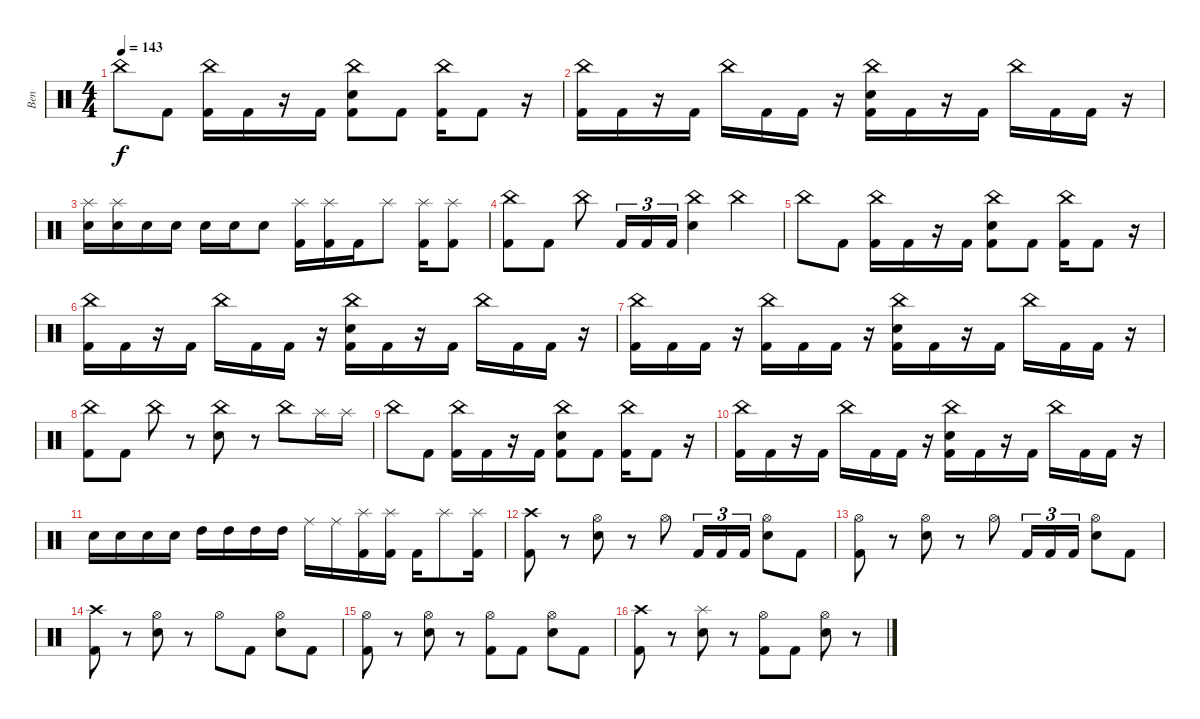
\track ("Ben" "Ben") {instrument percussion}
\staff {score}
\articulation defaults
\ts (4 4)
\tempo 143
\clef neutral
\ks c "China (hit)".8{dy f} "Kick (hit) 2".8
("China (hit)" "Kick (hit) 2").16 "Kick (hit) 2".16 r.16 "Kick (hit) 2".16 ("China (hit)" "Electric Snare (hit)" "Kick (hit) 2").8 "Kick (hit) 2".8 ("China (hit)" "Kick (hit) 2").16 "Kick (hit) 2".8 r.16 |
("China (hit)" "Kick (hit) 2").16 "Kick (hit) 2".16 r.16 "Kick (hit) 2".16 "China (hit)".16 "Kick (hit) 2".16 "Kick (hit) 2".16 r.16 ("China (hit)" "Electric Snare (hit)" "Kick (hit) 2").16 "Kick (hit) 2".16 r.16 "Kick (hit) 2".16 "China (hit)".16 "Kick (hit) 2".16 "Kick (hit) 2".16 r.16 |
("Splash (hit)" "Electric Snare (hit)").16 ("Splash (hit)" "Electric Snare (hit)").16 "Electric Snare (hit)".16 "Electric Snare (hit)".16 "Electric Snare (hit)".16 "Electric Snare (hit)".16 "Electric Snare (hit)".8 ("Splash (hit)" "Kick (hit) 2").16 ("Splash (hit)" "Kick (hit) 2").16 "Kick (hit) 2".16 "Splash (hit)".8 ("Splash (hit)" "Kick (hit) 2").16 ("Splash (hit)" "Kick (hit) 2").8 |
("China (hit)" "Kick (hit) 2").8 "Kick (hit) 2".8 "China (hit)".8 "Kick (hit) 2".16{tu (3 2)} "Kick (hit) 2".16{tu (3 2)} "Kick (hit) 2".16{tu (3 2)} ("China (hit)" "Electric Snare (hit)").4 "China (hit)".4 |
"China (hit)".8 "Kick (hit) 2".8 ("China (hit)" "Kick (hit) 2").16 "Kick (hit) 2".16 r.16 "Kick (hit) 2".16 ("China (hit)" "Electric Snare (hit)" "Kick (hit) 2").8 "Kick (hit) 2".8 ("China (hit)" "Kick (hit) 2").16 "Kick (hit) 2".8 r.16 |
("China (hit)" "Kick (hit) 2").16 "Kick (hit) 2".16 r.16 "Kick (hit) 2".16 "China (hit)".16 "Kick (hit) 2".16 "Kick (hit) 2".16 r.16 ("China (hit)" "Electric Snare (hit)" "Kick (hit) 2").16 "Kick (hit) 2".16 r.16 "Kick (hit) 2".16 "China (hit)".16 "Kick (hit) 2".16 "Kick (hit) 2".16 r.16 |
("China (hit)" "Kick (hit) 2").16 "Kick (hit) 2".16 "Kick (hit) 2".16 r.16 ("China (hit)" "Kick (hit) 2").16 "Kick (hit) 2".16 "Kick (hit) 2".16 r.16 ("China (hit)" "Electric Snare (hit)" "Kick (hit) 2").16 "Kick (hit) 2".16 r.16 "Kick (hit) 2".16 "China (hit)".16 "Kick (hit) 2".16 "Kick (hit) 2".16 r.16 |
("China (hit)" "Kick (hit) 2").8 "Kick (hit) 2".8 "China (hit)".8 r.8 ("China (hit)" "Electric Snare (hit)").8 r.8 "China (hit)".8 "Splash (hit)".16 "Splash (hit)".16 |
"China (hit)".8 "Kick (hit) 2".8 ("China (hit)" "Kick (hit) 2").16 "Kick (hit) 2".16 r.16 "Kick (hit) 2".16 ("China (hit)" "Electric Snare (hit)" "Kick (hit) 2").8 "Kick (hit) 2".8 ("China (hit)" "Kick (hit) 2").16 "Kick (hit) 2".8 r.16 |
("China (hit)" "Kick (hit) 2").16 "Kick (hit) 2".16 r.16 "Kick (hit) 2".16 "China (hit)".16 "Kick (hit) 2".16 "Kick (hit) 2".16 r.16 ("China (hit)" "Electric Snare (hit)" "Kick (hit) 2").16 "Kick (hit) 2".16 r.16 "Kick (hit) 2".16 "China (hit)".16 "Kick (hit) 2".16 "Kick (hit) 2".16 r.16 |
"Electric Snare (hit)".16 "Electric Snare (hit)".16 "Electric Snare (hit)".16 "Electric Snare (hit)".16 "High Tom (hit)".16 "High Tom (hit)".16 "High Tom (hit)".16 "High Tom (hit)".16 "Ride (middle)".16 "Ride (middle)".16 ("Splash (hit)" "Kick (hit) 2").16 ("Splash (hit)" "Kick (hit) 2").16 "Kick (hit) 2".16 "Splash (hit)".8 ("Splash (hit)" "Kick (hit) 2").16 |
("Crash high (hit)" "Kick (hit) 2").8 r.8 ("Hi-Hat (open)" "Electric Snare (hit)").8 r.8 "Hi-Hat (open)".8 "Kick (hit) 2".16{tu (3 2)} "Kick (hit) 2".16{tu (3 2)} "Kick (hit) 2".16{tu (3 2)} ("Hi-Hat (open)" "Electric Snare (hit)").8 "Kick (hit) 2".8 |
("Hi-Hat (open)" "Kick (hit) 2").8 r.8 ("Hi-Hat (open)" "Electric Snare (hit)").8 r.8 "Hi-Hat (open)".8 "Kick (hit) 2".16{tu (3 2)} "Kick (hit) 2".16{tu (3 2)} "Kick (hit) 2".16{tu (3 2)} ("Hi-Hat (open)" "Electric Snare (hit)").8 "Kick (hit) 2".8 |
("Crash high (hit)" "Kick (hit) 2").8 r.8 ("Hi-Hat (open)" "Electric Snare (hit)").8 r.8 "Hi-Hat (open)".8 "Kick (hit) 2".8 ("Hi-Hat (open)" "Electric Snare (hit)").8 "Kick (hit) 2".8 |
("Hi-Hat (open)" "Kick (hit) 2").8 r.8 ("Hi-Hat (open)" "Electric Snare (hit)").8 r.8 ("Hi-Hat (open)" "Kick (hit) 2").8 "Kick (hit) 2".8 ("Hi-Hat (open)" "Electric Snare (hit)").8 "Kick (hit) 2".8 |
("Crash high (hit)" "Kick (hit) 2").8 r.8 ("Splash (hit)" "Electric Snare (hit)").8 r.8 ("Hi-Hat (open)" "Kick (hit) 2").8 "Kick (hit) 2".8 ("Hi-Hat (open)" "Electric Snare (hit)").8 r.8
